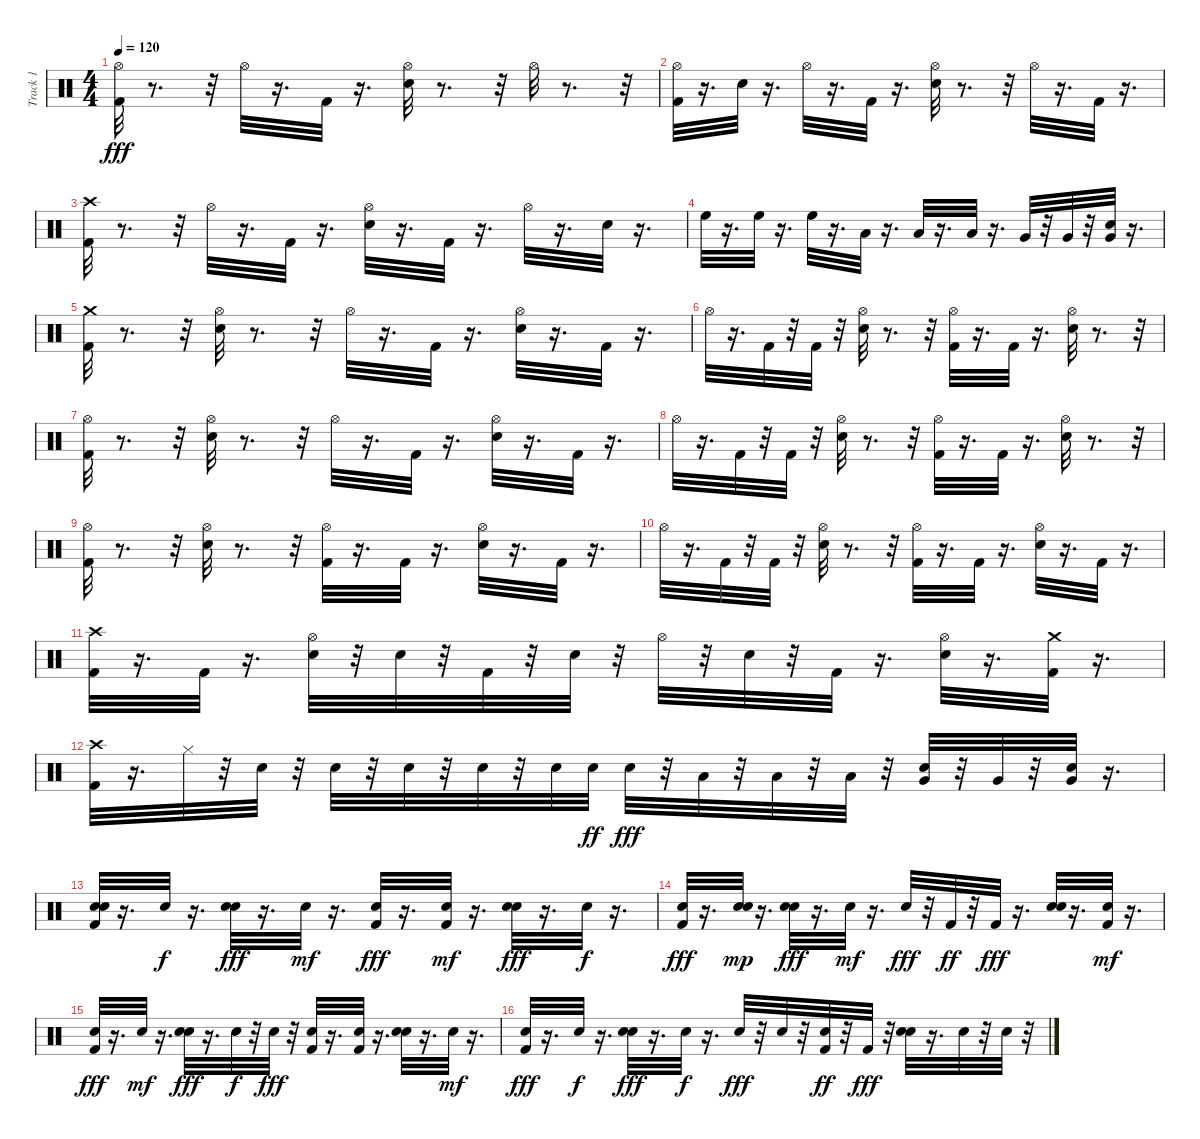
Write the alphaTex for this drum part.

\track ("Track 1" "Track 1") {instrument percussion}
\staff {score}
\articulation defaults
\ts (4 4)
\tempo 120
\clef neutral
\ks c
("Hi-Hat (open)" "Kick (hit) 2").32{dy fff} r.8{d} r.32 "Hi-Hat (open)".32 r.16{d} "Kick (hit) 2".32 r.16{d} ("Hi-Hat (open)" "Snare (hit) 2").32 r.8{d} r.32 "Hi-Hat (open)".32 r.8{d} r.32 |
("Hi-Hat (open)" "Kick (hit) 2").32 r.16{d} "Snare (hit) 2".32 r.16{d} "Hi-Hat (open)".32 r.16{d} "Kick (hit) 2".32 r.16{d} ("Snare (hit) 2" "Hi-Hat (open)").32 r.8{d} r.32 "Hi-Hat (open)".32 r.16{d} "Kick (hit) 2".32 r.16{d} |
("Crash high (hit)" "Kick (hit) 2").32 r.8{d} r.32 "Hi-Hat (open)".32 r.16{d} "Kick (hit) 2".32 r.16{d} ("Hi-Hat (open)" "Snare (hit) 2").32 r.16{d} "Kick (hit) 2".32 r.16{d} "Hi-Hat (open)".32 r.16{d} "Electric Snare (hit)".32 r.16{d} |
"High Floor Tom (hit)".32 r.16{d} "High Floor Tom (hit)".32 r.16{d} "High Floor Tom (hit)".32 r.16{d} "Low Tom (hit)".32 r.16{d} "Low Tom (hit)".32 r.16{d} "Low Tom (hit)".32 r.16{d} "Very Low Tom (hit)".32 r.32 "Very Low Tom (hit)".32 r.32 ("Snare (hit) 2" "Very Low Tom (hit)").32 r.16{d} |
("Crash medium (hit)" "Kick (hit) 2").32 r.8{d} r.32 ("Snare (hit) 2" "Hi-Hat (open)").32 r.8{d} r.32 "Hi-Hat (open)".32 r.16{d} "Kick (hit) 2".32 r.16{d} ("Snare (hit) 2" "Hi-Hat (open)").32 r.16{d} "Kick (hit) 2".32 r.16{d} |
"Hi-Hat (open)".32 r.16{d} "Kick (hit) 2".32 r.32 "Kick (hit) 2".32 r.32 ("Snare (hit) 2" "Hi-Hat (open)").32 r.8{d} r.32 ("Hi-Hat (open)" "Kick (hit) 2").32 r.16{d} "Kick (hit) 2".32 r.16{d} ("Snare (hit) 2" "Hi-Hat (open)").32 r.8{d} r.32 |
("Hi-Hat (open)" "Kick (hit) 2").32 r.8{d} r.32 ("Snare (hit) 2" "Hi-Hat (open)").32 r.8{d} r.32 "Hi-Hat (open)".32 r.16{d} "Kick (hit) 2".32 r.16{d} ("Hi-Hat (open)" "Snare (hit) 2").32 r.16{d} "Kick (hit) 2".32 r.16{d} |
"Hi-Hat (open)".32 r.16{d} "Kick (hit) 2".32 r.32 "Kick (hit) 2".32 r.32 ("Snare (hit) 2" "Hi-Hat (open)").32 r.8{d} r.32 ("Hi-Hat (open)" "Kick (hit) 2").32 r.16{d} "Kick (hit) 2".32 r.16{d} ("Snare (hit) 2" "Hi-Hat (open)").32 r.8{d} r.32 |
("Hi-Hat (open)" "Kick (hit) 2").32 r.8{d} r.32 ("Hi-Hat (open)" "Snare (hit) 2").32 r.8{d} r.32 ("Hi-Hat (open)" "Kick (hit) 2").32 r.16{d} "Kick (hit) 2".32 r.16{d} ("Snare (hit) 2" "Hi-Hat (open)").32 r.16{d} "Kick (hit) 2".32 r.16{d} |
"Hi-Hat (open)".32 r.16{d} "Kick (hit) 2".32 r.32 "Kick (hit) 2".32 r.32 ("Snare (hit) 2" "Hi-Hat (open)").32 r.8{d} r.32 ("Hi-Hat (open)" "Kick (hit) 2").32 r.16{d} "Kick (hit) 2".32 r.16{d} ("Hi-Hat (open)" "Snare (hit) 2").32 r.16{d} "Kick (hit) 2".32 r.16{d} |
("Kick (hit) 2" "Crash high (hit)").32 r.16{d} "Kick (hit) 2".32 r.16{d} ("Electric Snare (hit)" "Hi-Hat (open)").32 r.32 "Snare (hit) 2".32 r.32 "Kick (hit) 2".32 r.32 "Snare (hit) 2".32 r.32 "Hi-Hat (open)".32 r.32 "Electric Snare (hit)".32 r.32 "Kick (hit) 2".32 r.16{d} ("Electric Snare (hit)" "Hi-Hat (open)").32 r.16{d} ("Kick (hit) 2" "Crash medium (hit)").32 r.16{d} |
("Kick (hit) 2" "Crash high (hit)").32 r.16{d} "Hi-Hat (closed)".32 r.32 "Electric Snare (hit)".32 r.32 "Snare (hit) 2".32 r.32 "Snare (hit) 2".32 r.32 "Snare (hit) 2".32 r.32 "Snare (hit) 2".32 "Snare (hit) 2".32{dy ff} "Electric Snare (hit)".32{dy fff} r.32 "Low Tom (hit)".32 r.32 "Low Tom (hit)".32 r.32 "Low Tom (hit)".32 r.32 ("Electric Snare (hit)" "Very Low Tom (hit)").32 r.32 "Very Low Tom (hit)".32 r.32 ("Electric Snare (hit)" "Very Low Tom (hit)").32 r.16{d} |
("Kick (hit) 2" "Snare (hit)" "Snare (hit) 2").32 r.16{d} "Snare (hit) 2".32{dy f} r.16{d} ("Snare (hit) 2" "Snare (hit)").32{dy fff} r.16{d} "Snare (hit)".32{dy mf} r.16{d} ("Kick (hit) 2" "Snare (hit)").32{dy fff} r.16{d} ("Kick (hit) 2" "Snare (hit)").32{dy mf} r.16{d} ("Snare (hit)" "Snare (hit) 2").32{dy fff} r.16{d} "Snare (hit)".32{dy f} r.16{d} |
("Kick (hit) 2" "Snare (hit)").32{dy fff} r.16{d} ("Snare (hit) 2" "Snare (hit)").32{dy mp} r.16{d} ("Snare (hit) 2" "Snare (hit)").32{dy fff} r.16{d} "Snare (hit)".32{dy mf} r.16{d} "Snare (hit)".32{dy fff} r.32 "Kick (hit) 2".32{dy ff} r.32 "Kick (hit) 2".32{dy fff} r.16{d} ("Snare (hit) 2" "Snare (hit)").32 r.16{d} ("Kick (hit) 2" "Snare (hit)").32{dy mf} r.16{d} |
("Kick (hit) 2" "Snare (hit)").32{dy fff} r.16{d} "Snare (hit) 2".32{dy mf} r.16{d} ("Snare (hit) 2" "Snare (hit)").32{dy fff} r.16{d} "Snare (hit)".32{dy f} r.32 "Snare (hit) 2".32{dy fff} r.32 ("Kick (hit) 2" "Snare (hit)").32 r.16{d} ("Kick (hit) 2" "Snare (hit)").32 r.16{d} ("Snare (hit) 2" "Snare (hit)").32 r.16{d} "Snare (hit)".32{dy mf} r.16{d} |
("Kick (hit) 2" "Snare (hit)").32{dy fff} r.16{d} "Snare (hit)".32{dy f} r.16{d} ("Snare (hit) 2" "Snare (hit)").32{dy fff} r.16{d} "Snare (hit)".32{dy f} r.16{d} "Snare (hit)".32{dy fff} r.32 "Snare (hit) 2".32 r.32 ("Kick (hit) 2" "Snare (hit)").32{dy ff} r.32 "Kick (hit) 2".32{dy fff} r.32 ("Snare (hit) 2" "Snare (hit)").32 r.16{d} "Snare (hit) 2".32 r.32 "Snare (hit) 2".32 r.32
